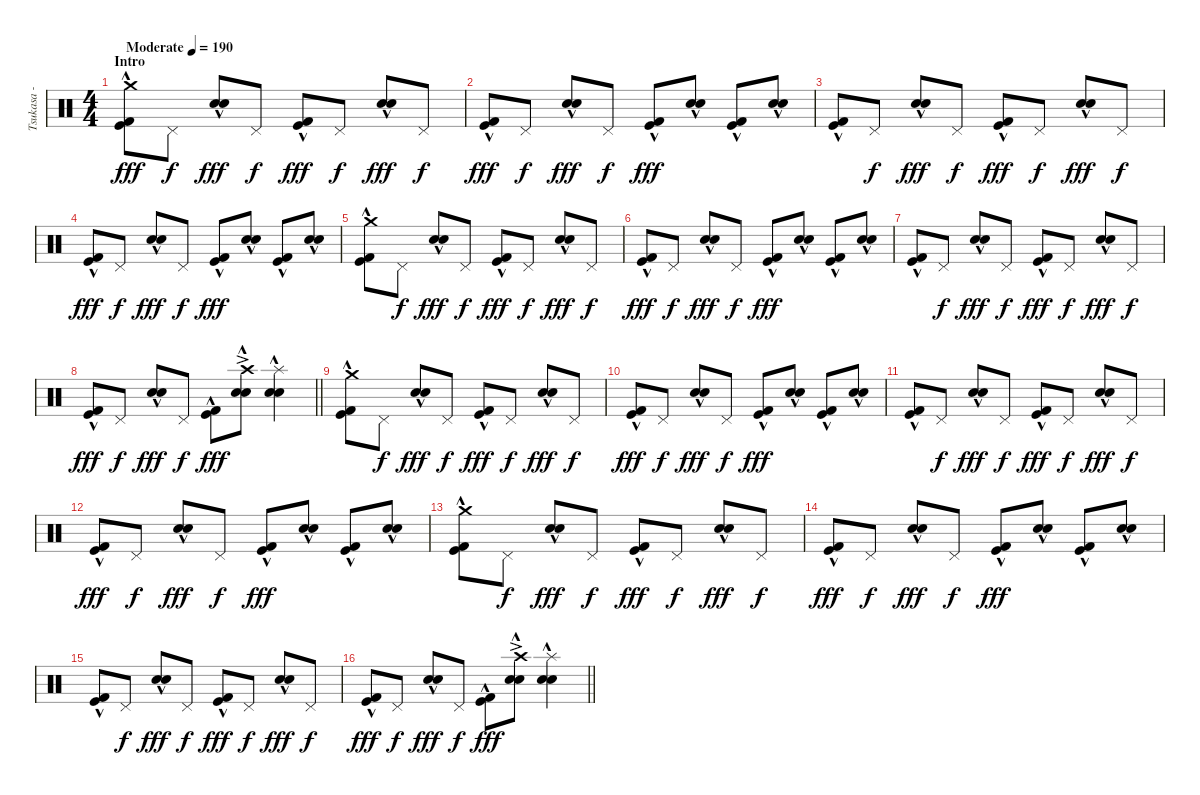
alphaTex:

\track ("Tsukasa - Drums" "Tsukasa - ") {instrument percussion}
\staff {score}
\articulation defaults
\ts (4 4)
\section ("" "Intro")
\tempo (190 "Moderate")
\clef neutral
\ks c
("Crash medium (hit)" "Kick (hit)"{hac} "Kick (hit) 2"{hac}).8{dy fff} "Pedal Hi-Hat (hit)".8{dy f} ("Electric Snare (hit)"{hac} "Snare (hit) 2"{hac}).8{dy fff} "Pedal Hi-Hat (hit)".8{dy f} ("Kick (hit)"{hac} "Kick (hit) 2"{hac}).8{dy fff} "Pedal Hi-Hat (hit)".8{dy f} ("Electric Snare (hit)"{hac} "Snare (hit) 2").8{dy fff} "Pedal Hi-Hat (hit)".8{dy f} |
("Kick (hit)"{hac} "Kick (hit) 2"{hac}).8{dy fff} "Pedal Hi-Hat (hit)".8{dy f} ("Electric Snare (hit)"{hac} "Snare (hit) 2"{hac}).8{dy fff} "Pedal Hi-Hat (hit)".8{dy f} ("Kick (hit)"{hac} "Kick (hit) 2"{hac}).8{dy fff} ("Electric Snare (hit)"{hac} "Snare (hit) 2"{hac}).8 ("Kick (hit)"{hac} "Kick (hit) 2"{hac}).8 ("Electric Snare (hit)"{hac} "Snare (hit) 2"{hac}).8 |
("Kick (hit)"{hac} "Kick (hit) 2"{hac}).8 "Pedal Hi-Hat (hit)".8{dy f} ("Electric Snare (hit)"{hac} "Snare (hit) 2"{hac}).8{dy fff} "Pedal Hi-Hat (hit)".8{dy f} ("Kick (hit)"{hac} "Kick (hit) 2"{hac}).8{dy fff} "Pedal Hi-Hat (hit)".8{dy f} ("Electric Snare (hit)"{hac} "Snare (hit) 2"{hac}).8{dy fff} "Pedal Hi-Hat (hit)".8{dy f} |
("Kick (hit)"{hac} "Kick (hit) 2"{hac}).8{dy fff} "Pedal Hi-Hat (hit)".8{dy f} ("Electric Snare (hit)"{hac} "Snare (hit) 2"{hac}).8{dy fff} "Pedal Hi-Hat (hit)".8{dy f} ("Kick (hit)"{hac} "Kick (hit) 2"{hac}).8{dy fff} ("Electric Snare (hit)"{hac} "Snare (hit) 2"{hac}).8 ("Kick (hit)"{hac} "Kick (hit) 2"{hac}).8 ("Electric Snare (hit)"{hac} "Snare (hit) 2"{hac}).8 |
("Crash medium (hit)" "Kick (hit)"{hac} "Kick (hit) 2"{hac}).8 "Pedal Hi-Hat (hit)".8{dy f} ("Electric Snare (hit)"{hac} "Snare (hit) 2").8{dy fff} "Pedal Hi-Hat (hit)".8{dy f} ("Kick (hit)"{hac} "Kick (hit) 2"{hac}).8{dy fff} "Pedal Hi-Hat (hit)".8{dy f} ("Electric Snare (hit)"{hac} "Snare (hit) 2").8{dy fff} "Pedal Hi-Hat (hit)".8{dy f} |
("Kick (hit)"{hac} "Kick (hit) 2"{hac}).8{dy fff} "Pedal Hi-Hat (hit)".8{dy f} ("Electric Snare (hit)"{hac} "Snare (hit) 2").8{dy fff} "Pedal Hi-Hat (hit)".8{dy f} ("Kick (hit)"{hac} "Kick (hit) 2"{hac}).8{dy fff} ("Electric Snare (hit)"{hac} "Snare (hit) 2").8 ("Kick (hit)"{hac} "Kick (hit) 2"{hac}).8 ("Electric Snare (hit)"{hac} "Snare (hit) 2").8 |
("Kick (hit)"{hac} "Kick (hit) 2"{hac}).8 "Pedal Hi-Hat (hit)".8{dy f} ("Electric Snare (hit)"{hac} "Snare (hit) 2").8{dy fff} "Pedal Hi-Hat (hit)".8{dy f} ("Kick (hit)"{hac} "Kick (hit) 2"{hac}).8{dy fff} "Pedal Hi-Hat (hit)".8{dy f} ("Electric Snare (hit)"{hac} "Snare (hit) 2").8{dy fff} "Pedal Hi-Hat (hit)".8{dy f} |
\barLineRight lightlight
("Kick (hit)"{hac} "Kick (hit) 2"{hac}).8{dy fff} "Pedal Hi-Hat (hit)".8{dy f} ("Electric Snare (hit)"{hac} "Snare (hit) 2").8{dy fff} "Pedal Hi-Hat (hit)".8{dy f} ("Kick (hit)"{hac} "Kick (hit) 2"{hac}).8{dy fff} ("Crash high (hit)"{ac} "Electric Snare (hit)"{hac} "Snare (hit) 2").8 ("Splash (hit)"{hac} "Electric Snare (hit)"{hac} "Snare (hit) 2").4 |
\section ("" "")
("Crash medium (hit)" "Kick (hit)"{hac} "Kick (hit) 2"{hac}).8 "Pedal Hi-Hat (hit)".8{dy f} ("Electric Snare (hit)"{hac} "Snare (hit) 2"{hac}).8{dy fff} "Pedal Hi-Hat (hit)".8{dy f} ("Kick (hit)"{hac} "Kick (hit) 2"{hac}).8{dy fff} "Pedal Hi-Hat (hit)".8{dy f} ("Electric Snare (hit)"{hac} "Snare (hit) 2").8{dy fff} "Pedal Hi-Hat (hit)".8{dy f} |
("Kick (hit)"{hac} "Kick (hit) 2"{hac}).8{dy fff} "Pedal Hi-Hat (hit)".8{dy f} ("Electric Snare (hit)"{hac} "Snare (hit) 2"{hac}).8{dy fff} "Pedal Hi-Hat (hit)".8{dy f} ("Kick (hit)"{hac} "Kick (hit) 2"{hac}).8{dy fff} ("Electric Snare (hit)"{hac} "Snare (hit) 2"{hac}).8 ("Kick (hit)"{hac} "Kick (hit) 2"{hac}).8 ("Electric Snare (hit)"{hac} "Snare (hit) 2"{hac}).8 |
("Kick (hit)"{hac} "Kick (hit) 2"{hac}).8 "Pedal Hi-Hat (hit)".8{dy f} ("Electric Snare (hit)"{hac} "Snare (hit) 2"{hac}).8{dy fff} "Pedal Hi-Hat (hit)".8{dy f} ("Kick (hit)"{hac} "Kick (hit) 2"{hac}).8{dy fff} "Pedal Hi-Hat (hit)".8{dy f} ("Electric Snare (hit)"{hac} "Snare (hit) 2").8{dy fff} "Pedal Hi-Hat (hit)".8{dy f} |
("Kick (hit)"{hac} "Kick (hit) 2"{hac}).8{dy fff} "Pedal Hi-Hat (hit)".8{dy f} ("Electric Snare (hit)"{hac} "Snare (hit) 2"{hac}).8{dy fff} "Pedal Hi-Hat (hit)".8{dy f} ("Kick (hit)"{hac} "Kick (hit) 2"{hac}).8{dy fff} ("Electric Snare (hit)"{hac} "Snare (hit) 2"{hac}).8 ("Kick (hit)"{hac} "Kick (hit) 2"{hac}).8 ("Electric Snare (hit)"{hac} "Snare (hit) 2"{hac}).8 |
("Crash medium (hit)" "Kick (hit)"{hac} "Kick (hit) 2"{hac}).8 "Pedal Hi-Hat (hit)".8{dy f} ("Electric Snare (hit)"{hac} "Snare (hit) 2"{hac}).8{dy fff} "Pedal Hi-Hat (hit)".8{dy f} ("Kick (hit)"{hac} "Kick (hit) 2"{hac}).8{dy fff} "Pedal Hi-Hat (hit)".8{dy f} ("Electric Snare (hit)"{hac} "Snare (hit) 2").8{dy fff} "Pedal Hi-Hat (hit)".8{dy f} |
("Kick (hit)"{hac} "Kick (hit) 2"{hac}).8{dy fff} "Pedal Hi-Hat (hit)".8{dy f} ("Electric Snare (hit)"{hac} "Snare (hit) 2"{hac}).8{dy fff} "Pedal Hi-Hat (hit)".8{dy f} ("Kick (hit)"{hac} "Kick (hit) 2"{hac}).8{dy fff} ("Electric Snare (hit)"{hac} "Snare (hit) 2"{hac}).8 ("Kick (hit)"{hac} "Kick (hit) 2"{hac}).8 ("Electric Snare (hit)"{hac} "Snare (hit) 2"{hac}).8 |
("Kick (hit)"{hac} "Kick (hit) 2"{hac}).8 "Pedal Hi-Hat (hit)".8{dy f} ("Electric Snare (hit)"{hac} "Snare (hit) 2"{hac}).8{dy fff} "Pedal Hi-Hat (hit)".8{dy f} ("Kick (hit)"{hac} "Kick (hit) 2"{hac}).8{dy fff} "Pedal Hi-Hat (hit)".8{dy f} ("Electric Snare (hit)"{hac} "Snare (hit) 2").8{dy fff} "Pedal Hi-Hat (hit)".8{dy f} |
\barLineRight lightlight
("Kick (hit)"{hac} "Kick (hit) 2"{hac}).8{dy fff} "Pedal Hi-Hat (hit)".8{dy f} ("Electric Snare (hit)"{hac} "Snare (hit) 2").8{dy fff} "Pedal Hi-Hat (hit)".8{dy f} ("Kick (hit)"{hac} "Kick (hit) 2"{hac}).8{dy fff} ("Crash high (hit)"{ac} "Electric Snare (hit)"{hac} "Snare (hit) 2").8 ("Splash (hit)"{hac} "Electric Snare (hit)"{hac} "Snare (hit) 2").4
